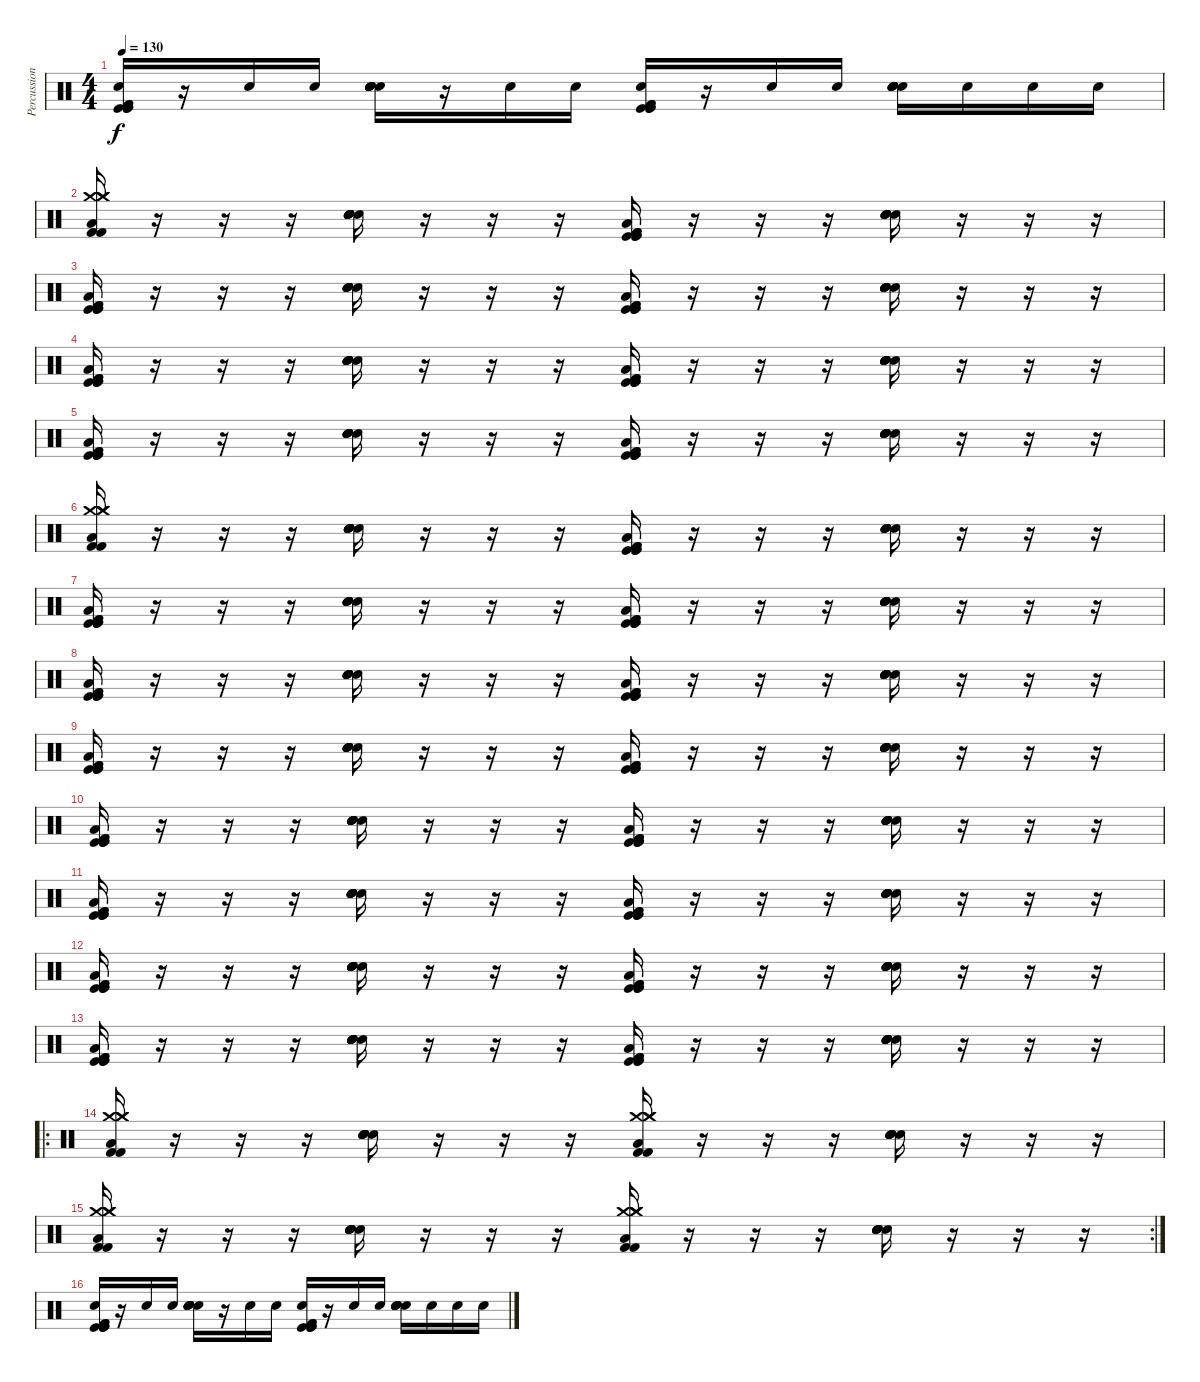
\track ("Percussion" "Percussion") {instrument percussion}
\staff {score}
\articulation defaults
\ts (4 4)
\tempo 130
\clef neutral
\ks c
("Kick (hit)" "Kick (hit)" "Kick (hit)" "Kick (hit) 2" "Kick (hit) 2" "Electric Snare (hit)").16{dy f} r.16 "Electric Snare (hit)".16 "Electric Snare (hit)".16 ("Snare (hit) 2" "Snare (hit) 2" "Snare (hit) 2" "Electric Snare (hit)" "Electric Snare (hit)" "Electric Snare (hit)").16 r.16 "Electric Snare (hit)".16 "Electric Snare (hit)".16 ("Kick (hit)" "Kick (hit)" "Kick (hit)" "Kick (hit) 2" "Kick (hit) 2" "Electric Snare (hit)").16 r.16 "Electric Snare (hit)".16 "Electric Snare (hit)".16 ("Snare (hit) 2" "Snare (hit) 2" "Snare (hit) 2" "Electric Snare (hit)" "Electric Snare (hit)" "Electric Snare (hit)").16 "Electric Snare (hit)".16 "Electric Snare (hit)".16 "Electric Snare (hit)".16 |
("Crash medium (hit)" "Crash medium (hit)" "Crash medium (hit)" "Kick (hit) 2" "Kick (hit) 2" "Low Floor Tom (hit)").16 r.16 r.16 r.16 ("Snare (hit) 2" "Snare (hit) 2" "Snare (hit) 2" "Electric Snare (hit)" "Electric Snare (hit)" "Electric Snare (hit)").16 r.16 r.16 r.16 ("Kick (hit)" "Kick (hit)" "Kick (hit)" "Kick (hit) 2" "Kick (hit) 2" "Low Floor Tom (hit)").16 r.16 r.16 r.16 ("Snare (hit) 2" "Snare (hit) 2" "Snare (hit) 2" "Electric Snare (hit)" "Electric Snare (hit)" "Electric Snare (hit)").16 r.16 r.16 r.16 |
("Kick (hit)" "Kick (hit)" "Kick (hit)" "Kick (hit) 2" "Kick (hit) 2" "Low Floor Tom (hit)").16 r.16 r.16 r.16 ("Snare (hit) 2" "Snare (hit) 2" "Snare (hit) 2" "Electric Snare (hit)" "Electric Snare (hit)" "Electric Snare (hit)").16 r.16 r.16 r.16 ("Kick (hit)" "Kick (hit)" "Kick (hit)" "Kick (hit) 2" "Kick (hit) 2" "Low Floor Tom (hit)").16 r.16 r.16 r.16 ("Snare (hit) 2" "Snare (hit) 2" "Snare (hit) 2" "Electric Snare (hit)" "Electric Snare (hit)" "Electric Snare (hit)").16 r.16 r.16 r.16 |
("Kick (hit)" "Kick (hit)" "Kick (hit)" "Kick (hit) 2" "Kick (hit) 2" "Low Floor Tom (hit)").16 r.16 r.16 r.16 ("Snare (hit) 2" "Snare (hit) 2" "Snare (hit) 2" "Electric Snare (hit)" "Electric Snare (hit)" "Electric Snare (hit)").16 r.16 r.16 r.16 ("Kick (hit)" "Kick (hit)" "Kick (hit)" "Kick (hit) 2" "Kick (hit) 2" "Low Floor Tom (hit)").16 r.16 r.16 r.16 ("Snare (hit) 2" "Snare (hit) 2" "Snare (hit) 2" "Electric Snare (hit)" "Electric Snare (hit)" "Electric Snare (hit)").16 r.16 r.16 r.16 |
("Kick (hit)" "Kick (hit)" "Kick (hit)" "Kick (hit) 2" "Kick (hit) 2" "Low Floor Tom (hit)").16 r.16 r.16 r.16 ("Snare (hit) 2" "Snare (hit) 2" "Snare (hit) 2" "Electric Snare (hit)" "Electric Snare (hit)" "Electric Snare (hit)").16 r.16 r.16 r.16 ("Kick (hit)" "Kick (hit)" "Kick (hit)" "Kick (hit) 2" "Kick (hit) 2" "Low Floor Tom (hit)").16 r.16 r.16 r.16 ("Snare (hit) 2" "Snare (hit) 2" "Snare (hit) 2" "Electric Snare (hit)" "Electric Snare (hit)" "Electric Snare (hit)").16 r.16 r.16 r.16 |
("Crash medium (hit)" "Crash medium (hit)" "Crash medium (hit)" "Kick (hit) 2" "Kick (hit) 2" "Low Floor Tom (hit)").16 r.16 r.16 r.16 ("Snare (hit) 2" "Snare (hit) 2" "Snare (hit) 2" "Electric Snare (hit)" "Electric Snare (hit)" "Electric Snare (hit)").16 r.16 r.16 r.16 ("Kick (hit)" "Kick (hit)" "Kick (hit)" "Kick (hit) 2" "Kick (hit) 2" "Low Floor Tom (hit)").16 r.16 r.16 r.16 ("Snare (hit) 2" "Snare (hit) 2" "Snare (hit) 2" "Electric Snare (hit)" "Electric Snare (hit)" "Electric Snare (hit)").16 r.16 r.16 r.16 |
("Kick (hit)" "Kick (hit)" "Kick (hit)" "Kick (hit) 2" "Kick (hit) 2" "Low Floor Tom (hit)").16 r.16 r.16 r.16 ("Snare (hit) 2" "Snare (hit) 2" "Snare (hit) 2" "Electric Snare (hit)" "Electric Snare (hit)" "Electric Snare (hit)").16 r.16 r.16 r.16 ("Kick (hit)" "Kick (hit)" "Kick (hit)" "Kick (hit) 2" "Kick (hit) 2" "Low Floor Tom (hit)").16 r.16 r.16 r.16 ("Snare (hit) 2" "Snare (hit) 2" "Snare (hit) 2" "Electric Snare (hit)" "Electric Snare (hit)" "Electric Snare (hit)").16 r.16 r.16 r.16 |
("Kick (hit)" "Kick (hit)" "Kick (hit)" "Kick (hit) 2" "Kick (hit) 2" "Low Floor Tom (hit)").16 r.16 r.16 r.16 ("Snare (hit) 2" "Snare (hit) 2" "Snare (hit) 2" "Electric Snare (hit)" "Electric Snare (hit)" "Electric Snare (hit)").16 r.16 r.16 r.16 ("Kick (hit)" "Kick (hit)" "Kick (hit)" "Kick (hit) 2" "Kick (hit) 2" "Low Floor Tom (hit)").16 r.16 r.16 r.16 ("Snare (hit) 2" "Snare (hit) 2" "Snare (hit) 2" "Electric Snare (hit)" "Electric Snare (hit)" "Electric Snare (hit)").16 r.16 r.16 r.16 |
("Kick (hit)" "Kick (hit)" "Kick (hit)" "Kick (hit) 2" "Kick (hit) 2" "Low Floor Tom (hit)").16 r.16 r.16 r.16 ("Snare (hit) 2" "Snare (hit) 2" "Snare (hit) 2" "Electric Snare (hit)" "Electric Snare (hit)" "Electric Snare (hit)").16 r.16 r.16 r.16 ("Kick (hit)" "Kick (hit)" "Kick (hit)" "Kick (hit) 2" "Kick (hit) 2" "Low Floor Tom (hit)").16 r.16 r.16 r.16 ("Snare (hit) 2" "Snare (hit) 2" "Snare (hit) 2" "Electric Snare (hit)" "Electric Snare (hit)" "Electric Snare (hit)").16 r.16 r.16 r.16 |
("Kick (hit)" "Kick (hit)" "Kick (hit)" "Kick (hit) 2" "Kick (hit) 2" "Low Floor Tom (hit)").16 r.16 r.16 r.16 ("Snare (hit) 2" "Snare (hit) 2" "Snare (hit) 2" "Electric Snare (hit)" "Electric Snare (hit)" "Electric Snare (hit)").16 r.16 r.16 r.16 ("Kick (hit)" "Kick (hit)" "Kick (hit)" "Kick (hit) 2" "Kick (hit) 2" "Low Floor Tom (hit)").16 r.16 r.16 r.16 ("Snare (hit) 2" "Snare (hit) 2" "Snare (hit) 2" "Electric Snare (hit)" "Electric Snare (hit)" "Electric Snare (hit)").16 r.16 r.16 r.16 |
("Kick (hit)" "Kick (hit)" "Kick (hit)" "Kick (hit) 2" "Kick (hit) 2" "Low Floor Tom (hit)").16 r.16 r.16 r.16 ("Snare (hit) 2" "Snare (hit) 2" "Snare (hit) 2" "Electric Snare (hit)" "Electric Snare (hit)" "Electric Snare (hit)").16 r.16 r.16 r.16 ("Kick (hit)" "Kick (hit)" "Kick (hit)" "Kick (hit) 2" "Kick (hit) 2" "Low Floor Tom (hit)").16 r.16 r.16 r.16 ("Snare (hit) 2" "Snare (hit) 2" "Snare (hit) 2" "Electric Snare (hit)" "Electric Snare (hit)" "Electric Snare (hit)").16 r.16 r.16 r.16 |
("Kick (hit)" "Kick (hit)" "Kick (hit)" "Kick (hit) 2" "Kick (hit) 2" "Low Floor Tom (hit)").16 r.16 r.16 r.16 ("Snare (hit) 2" "Snare (hit) 2" "Snare (hit) 2" "Electric Snare (hit)" "Electric Snare (hit)" "Electric Snare (hit)").16 r.16 r.16 r.16 ("Kick (hit)" "Kick (hit)" "Kick (hit)" "Kick (hit) 2" "Kick (hit) 2" "Low Floor Tom (hit)").16 r.16 r.16 r.16 ("Snare (hit) 2" "Snare (hit) 2" "Snare (hit) 2" "Electric Snare (hit)" "Electric Snare (hit)" "Electric Snare (hit)").16 r.16 r.16 r.16 |
("Kick (hit)" "Kick (hit)" "Kick (hit)" "Kick (hit) 2" "Kick (hit) 2" "Low Floor Tom (hit)").16 r.16 r.16 r.16 ("Snare (hit) 2" "Snare (hit) 2" "Snare (hit) 2" "Electric Snare (hit)" "Electric Snare (hit)" "Electric Snare (hit)").16 r.16 r.16 r.16 ("Kick (hit)" "Kick (hit)" "Kick (hit)" "Kick (hit) 2" "Kick (hit) 2" "Low Floor Tom (hit)").16 r.16 r.16 r.16 ("Snare (hit) 2" "Snare (hit) 2" "Snare (hit) 2" "Electric Snare (hit)" "Electric Snare (hit)" "Electric Snare (hit)").16 r.16 r.16 r.16 |
\ro
("Crash medium (hit)" "Crash medium (hit)" "Crash medium (hit)" "Kick (hit) 2" "Kick (hit) 2" "Low Floor Tom (hit)").16 r.16 r.16 r.16 ("Snare (hit) 2" "Snare (hit) 2" "Snare (hit) 2" "Electric Snare (hit)" "Electric Snare (hit)" "Electric Snare (hit)").16 r.16 r.16 r.16 ("Crash medium (hit)" "Crash medium (hit)" "Crash medium (hit)" "Kick (hit) 2" "Kick (hit) 2" "Low Floor Tom (hit)").16 r.16 r.16 r.16 ("Snare (hit) 2" "Snare (hit) 2" "Snare (hit) 2" "Electric Snare (hit)" "Electric Snare (hit)" "Electric Snare (hit)").16 r.16 r.16 r.16 |
\rc 2
("Crash medium (hit)" "Crash medium (hit)" "Crash medium (hit)" "Kick (hit) 2" "Kick (hit) 2" "Low Floor Tom (hit)").16 r.16 r.16 r.16 ("Snare (hit) 2" "Snare (hit) 2" "Snare (hit) 2" "Electric Snare (hit)" "Electric Snare (hit)" "Electric Snare (hit)").16 r.16 r.16 r.16 ("Crash medium (hit)" "Crash medium (hit)" "Crash medium (hit)" "Kick (hit) 2" "Kick (hit) 2" "Low Floor Tom (hit)").16 r.16 r.16 r.16 ("Snare (hit) 2" "Snare (hit) 2" "Snare (hit) 2" "Electric Snare (hit)" "Electric Snare (hit)" "Electric Snare (hit)").16 r.16 r.16 r.16 |
("Kick (hit)" "Kick (hit)" "Kick (hit)" "Kick (hit) 2" "Kick (hit) 2" "Electric Snare (hit)").16 r.16 "Electric Snare (hit)".16 "Electric Snare (hit)".16 ("Snare (hit) 2" "Snare (hit) 2" "Snare (hit) 2" "Electric Snare (hit)" "Electric Snare (hit)" "Electric Snare (hit)").16 r.16 "Electric Snare (hit)".16 "Electric Snare (hit)".16 ("Kick (hit)" "Kick (hit)" "Kick (hit)" "Kick (hit) 2" "Kick (hit) 2" "Electric Snare (hit)").16 r.16 "Electric Snare (hit)".16 "Electric Snare (hit)".16 ("Snare (hit) 2" "Snare (hit) 2" "Snare (hit) 2" "Electric Snare (hit)" "Electric Snare (hit)" "Electric Snare (hit)").16 "Electric Snare (hit)".16 "Electric Snare (hit)".16 "Electric Snare (hit)".16
